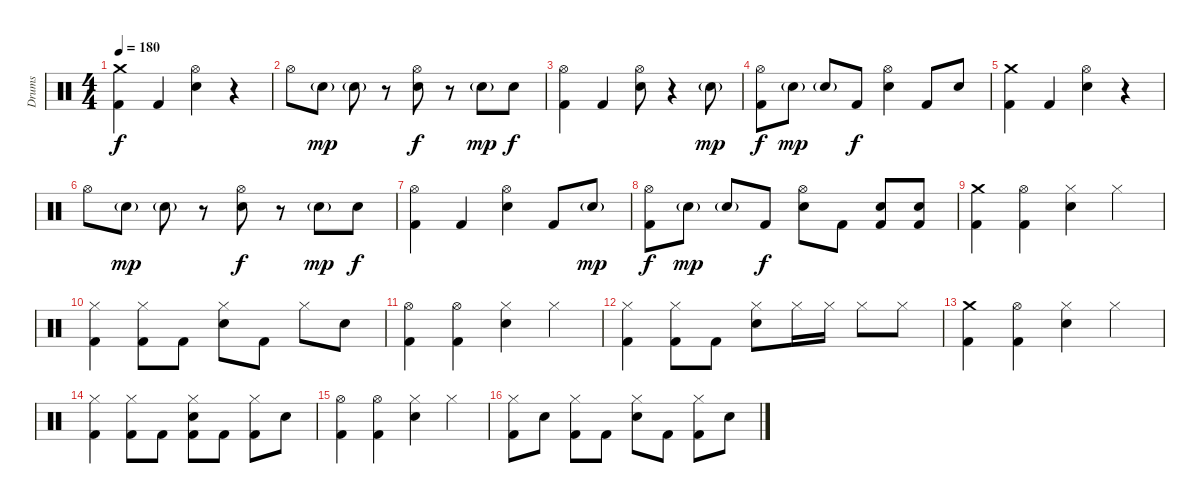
\track ("Drums" "Drums") {instrument percussion}
\staff {score}
\articulation defaults
\ts (4 4)
\tempo 180
\clef neutral
\ks c
("Crash medium (hit)" "Kick (hit) 2").4{dy f} "Kick (hit) 2".4 ("Hi-Hat (open)" "Electric Snare (hit)").4 r.4 |
"Hi-Hat (open)".8 "Electric Snare (hit)"{g}.8{dy mp} "Electric Snare (hit)"{g}.8 r.8 ("Hi-Hat (open)" "Electric Snare (hit)").8{dy f} r.8 "Electric Snare (hit)"{g}.8{dy mp} "Electric Snare (hit)".8{dy f} |
("Hi-Hat (open)" "Kick (hit) 2").4 "Kick (hit) 2".4 ("Hi-Hat (open)" "Electric Snare (hit)").8 r.4 "Electric Snare (hit)"{g}.8{dy mp} |
("Hi-Hat (open)" "Kick (hit) 2").8{dy f} "Electric Snare (hit)"{g}.8{dy mp} "Electric Snare (hit)"{g}.8 "Kick (hit) 2".8{dy f} ("Hi-Hat (open)" "Electric Snare (hit)").4 "Kick (hit) 2".8 "Electric Snare (hit)".8 |
("Crash medium (hit)" "Kick (hit) 2").4 "Kick (hit) 2".4 ("Hi-Hat (open)" "Electric Snare (hit)").4 r.4 |
"Hi-Hat (open)".8 "Electric Snare (hit)"{g}.8{dy mp} "Electric Snare (hit)"{g}.8 r.8 ("Hi-Hat (open)" "Electric Snare (hit)").8{dy f} r.8 "Electric Snare (hit)"{g}.8{dy mp} "Electric Snare (hit)".8{dy f} |
("Hi-Hat (open)" "Kick (hit) 2").4 "Kick (hit) 2".4 ("Hi-Hat (open)" "Electric Snare (hit)").4 "Kick (hit) 2".8 "Electric Snare (hit)"{g}.8{dy mp} |
("Hi-Hat (open)" "Kick (hit) 2").8{dy f} "Electric Snare (hit)"{g}.8{dy mp} "Electric Snare (hit)"{g}.8 "Kick (hit) 2".8{dy f} ("Hi-Hat (open)" "Electric Snare (hit)").8 "Kick (hit) 2".8 ("Electric Snare (hit)" "Kick (hit) 2").8 ("Electric Snare (hit)" "Kick (hit) 2").8 |
("Crash medium (hit)" "Kick (hit) 2").4 ("Hi-Hat (open)" "Kick (hit) 2").4 ("Hi-Hat (closed)" "Electric Snare (hit)").4 "Hi-Hat (closed)".4 |
("Hi-Hat (closed)" "Kick (hit) 2").4 ("Hi-Hat (closed)" "Kick (hit) 2").8 "Kick (hit) 2".8 ("Hi-Hat (closed)" "Electric Snare (hit)").8 "Kick (hit) 2".8 "Hi-Hat (closed)".8 "Electric Snare (hit)".8 |
("Hi-Hat (open)" "Kick (hit) 2").4 ("Hi-Hat (open)" "Kick (hit) 2").4 ("Hi-Hat (closed)" "Electric Snare (hit)").4 "Hi-Hat (closed)".4 |
("Hi-Hat (closed)" "Kick (hit) 2").4 ("Hi-Hat (closed)" "Kick (hit) 2").8 "Kick (hit) 2".8 ("Hi-Hat (closed)" "Electric Snare (hit)").8 "Hi-Hat (closed)".16 "Hi-Hat (closed)".16 "Hi-Hat (closed)".8 "Hi-Hat (closed)".8 |
("Crash medium (hit)" "Kick (hit) 2").4 ("Hi-Hat (open)" "Kick (hit) 2").4 ("Hi-Hat (closed)" "Electric Snare (hit)").4 "Hi-Hat (closed)".4 |
("Hi-Hat (closed)" "Kick (hit) 2").4 ("Hi-Hat (closed)" "Kick (hit) 2").8 "Kick (hit) 2".8 ("Hi-Hat (closed)" "Electric Snare (hit)" "Kick (hit) 2").8 "Kick (hit) 2".8 ("Hi-Hat (closed)" "Kick (hit) 2").8 "Electric Snare (hit)".8 |
("Hi-Hat (open)" "Kick (hit) 2").4 ("Hi-Hat (open)" "Kick (hit) 2").4 ("Hi-Hat (closed)" "Electric Snare (hit)").4 "Hi-Hat (closed)".4 |
("Hi-Hat (closed)" "Kick (hit) 2").8 "Electric Snare (hit)".8 ("Hi-Hat (closed)" "Kick (hit) 2").8 "Kick (hit) 2".8 ("Hi-Hat (closed)" "Electric Snare (hit)").8 "Kick (hit) 2".8 ("Hi-Hat (closed)" "Kick (hit) 2").8 "Electric Snare (hit)".8
